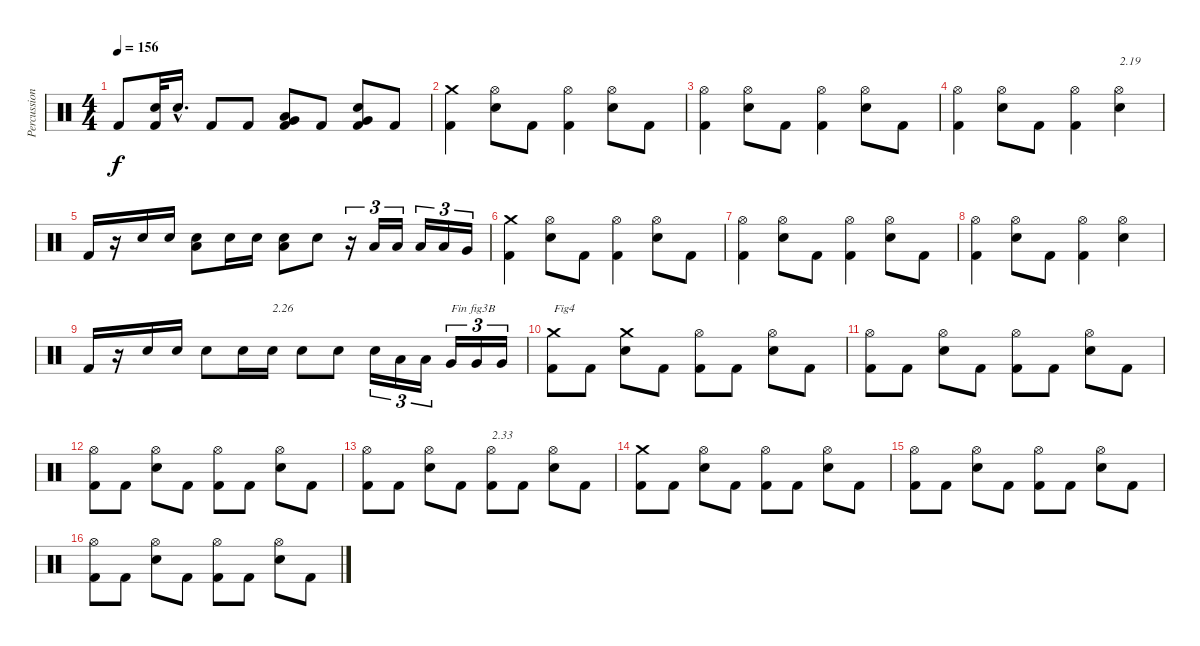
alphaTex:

\track ("Percussions" "Percussion") {instrument percussion}
\staff {score}
\articulation defaults
\ts (4 4)
\tempo 156
\clef neutral
\ks c "Kick (hit) 2".8{dy f}
("Kick (hit) 2" "Electric Snare (hit)").32 "Electric Snare (hit)"{hac}.16{d} "Kick (hit) 2".8 "Kick (hit) 2".8 ("Kick (hit) 2" "Low Floor Tom (hit)" "Very Low Tom (hit)").8 "Kick (hit) 2".8 ("Kick (hit) 2" "Electric Snare (hit)" "Very Low Tom (hit)").8 "Kick (hit) 2".8 |
("Kick (hit) 2" "Crash medium (hit)").4 ("Electric Snare (hit)" "Hi-Hat (open)").8 "Kick (hit) 2".8 ("Kick (hit) 2" "Hi-Hat (open)").4 ("Electric Snare (hit)" "Hi-Hat (open)").8 "Kick (hit) 2".8 |
("Kick (hit) 2" "Hi-Hat (open)").4 ("Electric Snare (hit)" "Hi-Hat (open)").8 "Kick (hit) 2".8 ("Kick (hit) 2" "Hi-Hat (open)").4 ("Electric Snare (hit)" "Hi-Hat (open)").8 "Kick (hit) 2".8 |
("Kick (hit) 2" "Hi-Hat (open)").4 ("Electric Snare (hit)" "Hi-Hat (open)").8 "Kick (hit) 2".8 ("Kick (hit) 2" "Hi-Hat (open)").4 ("Electric Snare (hit)" "Hi-Hat (open)").4{txt "2.19"} |
"Kick (hit) 2".16 r.16 "Electric Snare (hit)".16 "Electric Snare (hit)".16 ("Electric Snare (hit)" "Low Floor Tom (hit)").8 "Electric Snare (hit)".16 "Electric Snare (hit)".16 ("Electric Snare (hit)" "Low Floor Tom (hit)").8 "Electric Snare (hit)".8 r.16{tu (3 2)} "Low Tom (hit)".16{tu (3 2)} "Low Tom (hit)".16{tu (3 2)} "Low Tom (hit)".16{tu (3 2)} "Low Tom (hit)".16{tu (3 2)} "Very Low Tom (hit)".16{tu (3 2)} |
("Kick (hit) 2" "Crash medium (hit)").4 ("Electric Snare (hit)" "Hi-Hat (open)").8 "Kick (hit) 2".8 ("Kick (hit) 2" "Hi-Hat (open)").4 ("Electric Snare (hit)" "Hi-Hat (open)").8 "Kick (hit) 2".8 |
("Kick (hit) 2" "Hi-Hat (open)").4 ("Electric Snare (hit)" "Hi-Hat (open)").8 "Kick (hit) 2".8 ("Kick (hit) 2" "Hi-Hat (open)").4 ("Electric Snare (hit)" "Hi-Hat (open)").8 "Kick (hit) 2".8 |
("Kick (hit) 2" "Hi-Hat (open)").4 ("Electric Snare (hit)" "Hi-Hat (open)").8 "Kick (hit) 2".8 ("Kick (hit) 2" "Hi-Hat (open)").4 ("Electric Snare (hit)" "Hi-Hat (open)").4 |
"Kick (hit) 2".16 r.16 "Electric Snare (hit)".16 "Electric Snare (hit)".16 "Electric Snare (hit)".8 "Electric Snare (hit)".16 "Electric Snare (hit)".16{txt "2.26"} "Electric Snare (hit)".8 "Electric Snare (hit)".8 "Electric Snare (hit)".16{tu (3 2)} "Low Tom (hit)".16{tu (3 2)} "Low Tom (hit)".16{tu (3 2)} "Very Low Tom (hit)".16{tu (3 2) txt "Fin fig3B"} "Very Low Tom (hit)".16{tu (3 2)} "Very Low Tom (hit)".16{tu (3 2)} |
("Kick (hit) 2" "Crash medium (hit)").8{txt "Fig4"} "Kick (hit) 2".8 ("Electric Snare (hit)" "Crash medium (hit)").8 "Kick (hit) 2".8 ("Kick (hit) 2" "Hi-Hat (open)").8 "Kick (hit) 2".8 ("Electric Snare (hit)" "Hi-Hat (open)").8 "Kick (hit) 2".8 |
("Kick (hit) 2" "Hi-Hat (open)").8 "Kick (hit) 2".8 ("Electric Snare (hit)" "Hi-Hat (open)").8 "Kick (hit) 2".8 ("Kick (hit) 2" "Hi-Hat (open)").8 "Kick (hit) 2".8 ("Electric Snare (hit)" "Hi-Hat (open)").8 "Kick (hit) 2".8 |
("Kick (hit) 2" "Hi-Hat (open)").8 "Kick (hit) 2".8 ("Electric Snare (hit)" "Hi-Hat (open)").8 "Kick (hit) 2".8 ("Kick (hit) 2" "Hi-Hat (open)").8 "Kick (hit) 2".8 ("Electric Snare (hit)" "Hi-Hat (open)").8 "Kick (hit) 2".8 |
("Kick (hit) 2" "Hi-Hat (open)").8 "Kick (hit) 2".8 ("Electric Snare (hit)" "Hi-Hat (open)").8 "Kick (hit) 2".8 ("Kick (hit) 2" "Hi-Hat (open)").8{txt "2.33"} "Kick (hit) 2".8 ("Electric Snare (hit)" "Hi-Hat (open)").8 "Kick (hit) 2".8 |
("Kick (hit) 2" "Crash medium (hit)").8 "Kick (hit) 2".8 ("Electric Snare (hit)" "Hi-Hat (open)").8 "Kick (hit) 2".8 ("Kick (hit) 2" "Hi-Hat (open)").8 "Kick (hit) 2".8 ("Electric Snare (hit)" "Hi-Hat (open)").8 "Kick (hit) 2".8 |
("Kick (hit) 2" "Hi-Hat (open)").8 "Kick (hit) 2".8 ("Electric Snare (hit)" "Hi-Hat (open)").8 "Kick (hit) 2".8 ("Kick (hit) 2" "Hi-Hat (open)").8 "Kick (hit) 2".8 ("Electric Snare (hit)" "Hi-Hat (open)").8 "Kick (hit) 2".8 |
("Kick (hit) 2" "Hi-Hat (open)").8 "Kick (hit) 2".8 ("Electric Snare (hit)" "Hi-Hat (open)").8 "Kick (hit) 2".8 ("Kick (hit) 2" "Hi-Hat (open)").8 "Kick (hit) 2".8 ("Electric Snare (hit)" "Hi-Hat (open)").8 "Kick (hit) 2".8
